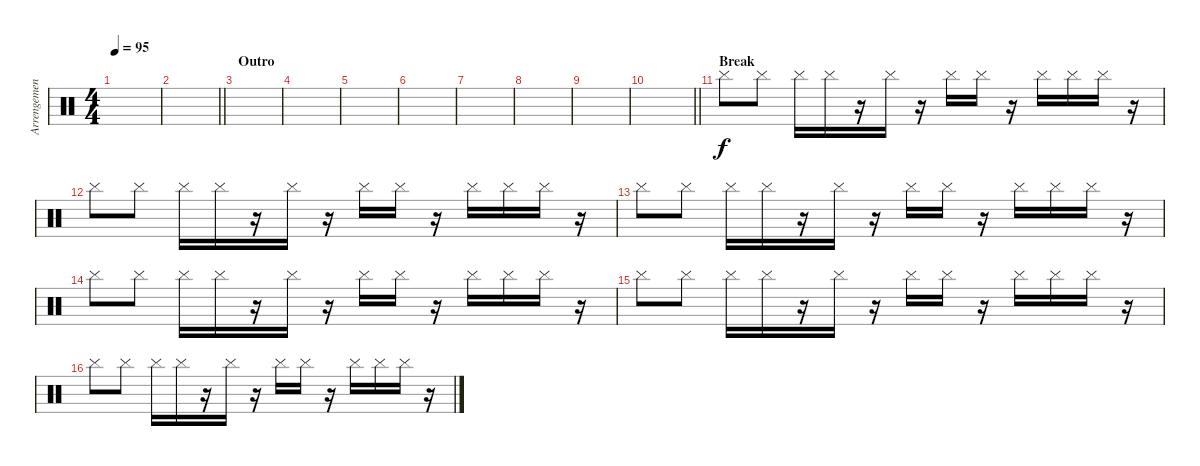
\track ("Arrengements" "Arrengemen") {instrument percussion}
\staff {score}
\articulation defaults
\ts (4 4)
\tempo 95
\clef neutral
\ks c
|
\barLineRight lightlight
|
\section ("" "Outro")
|
|
|
|
|
|
|
\barLineRight lightlight
|
\section ("" "Break")
"Cymbal (hit)".8 "Cymbal (hit)".8 "Cymbal (hit)".16 "Cymbal (hit)".16 r.16 "Cymbal (hit)".16 r.16 "Cymbal (hit)".16 "Cymbal (hit)".16 r.16 "Cymbal (hit)".16 "Cymbal (hit)".16 "Cymbal (hit)".16 r.16 |
"Cymbal (hit)".8 "Cymbal (hit)".8 "Cymbal (hit)".16 "Cymbal (hit)".16 r.16 "Cymbal (hit)".16 r.16 "Cymbal (hit)".16 "Cymbal (hit)".16 r.16 "Cymbal (hit)".16 "Cymbal (hit)".16 "Cymbal (hit)".16 r.16 |
"Cymbal (hit)".8 "Cymbal (hit)".8 "Cymbal (hit)".16 "Cymbal (hit)".16 r.16 "Cymbal (hit)".16 r.16 "Cymbal (hit)".16 "Cymbal (hit)".16 r.16 "Cymbal (hit)".16 "Cymbal (hit)".16 "Cymbal (hit)".16 r.16 |
"Cymbal (hit)".8 "Cymbal (hit)".8 "Cymbal (hit)".16 "Cymbal (hit)".16 r.16 "Cymbal (hit)".16 r.16 "Cymbal (hit)".16 "Cymbal (hit)".16 r.16 "Cymbal (hit)".16 "Cymbal (hit)".16 "Cymbal (hit)".16 r.16 |
"Cymbal (hit)".8 "Cymbal (hit)".8 "Cymbal (hit)".16 "Cymbal (hit)".16 r.16 "Cymbal (hit)".16 r.16 "Cymbal (hit)".16 "Cymbal (hit)".16 r.16 "Cymbal (hit)".16 "Cymbal (hit)".16 "Cymbal (hit)".16 r.16 |
"Cymbal (hit)".8 "Cymbal (hit)".8 "Cymbal (hit)".16 "Cymbal (hit)".16 r.16 "Cymbal (hit)".16 r.16 "Cymbal (hit)".16 "Cymbal (hit)".16 r.16 "Cymbal (hit)".16 "Cymbal (hit)".16 "Cymbal (hit)".16 r.16
